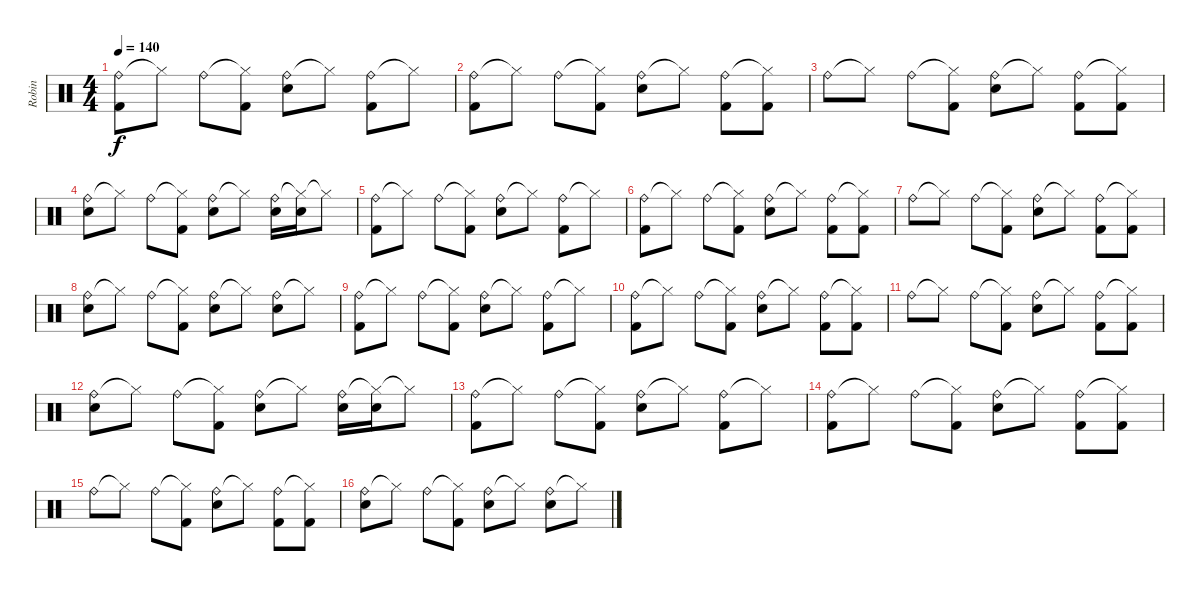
\track ("Robin" "Robin") {instrument percussion}
\staff {score}
\articulation defaults
\ts (4 4)
\tempo 140
\clef neutral
\ks c
("Ride (bell)" "Kick (hit) 2").8{dy f} "Hi-Hat (closed)"{t}.8 "Ride (bell)".8 ("Hi-Hat (closed)"{t} "Kick (hit) 2").8 ("Ride (bell)" "Snare (hit) 2").8 "Hi-Hat (closed)"{t}.8 ("Ride (bell)" "Kick (hit) 2").8 "Hi-Hat (closed)"{t}.8 |
("Ride (bell)" "Kick (hit) 2").8 "Hi-Hat (closed)"{t}.8 "Ride (bell)".8 ("Hi-Hat (closed)"{t} "Kick (hit) 2").8 ("Ride (bell)" "Snare (hit) 2").8 "Hi-Hat (closed)"{t}.8 ("Ride (bell)" "Kick (hit) 2").8 ("Hi-Hat (closed)"{t} "Kick (hit) 2").8 |
"Ride (bell)".8 "Hi-Hat (closed)"{t}.8 "Ride (bell)".8 ("Hi-Hat (closed)"{t} "Kick (hit) 2").8 ("Ride (bell)" "Snare (hit) 2").8 "Hi-Hat (closed)"{t}.8 ("Ride (bell)" "Kick (hit) 2").8 ("Hi-Hat (closed)"{t} "Kick (hit) 2").8 |
("Ride (bell)" "Snare (hit) 2").8 "Hi-Hat (closed)"{t}.8 "Ride (bell)".8 ("Hi-Hat (closed)"{t} "Kick (hit) 2").8 ("Ride (bell)" "Snare (hit) 2").8 "Hi-Hat (closed)"{t}.8 ("Ride (bell)" "Snare (hit) 2").16 ("Hi-Hat (closed)"{t} "Snare (hit) 2").16 "Hi-Hat (closed)"{t}.8 |
("Ride (bell)" "Kick (hit) 2").8 "Hi-Hat (closed)"{t}.8 "Ride (bell)".8 ("Hi-Hat (closed)"{t} "Kick (hit) 2").8 ("Ride (bell)" "Snare (hit) 2").8 "Hi-Hat (closed)"{t}.8 ("Ride (bell)" "Kick (hit) 2").8 "Hi-Hat (closed)"{t}.8 |
("Ride (bell)" "Kick (hit) 2").8 "Hi-Hat (closed)"{t}.8 "Ride (bell)".8 ("Hi-Hat (closed)"{t} "Kick (hit) 2").8 ("Ride (bell)" "Snare (hit) 2").8 "Hi-Hat (closed)"{t}.8 ("Ride (bell)" "Kick (hit) 2").8 ("Hi-Hat (closed)"{t} "Kick (hit) 2").8 |
"Ride (bell)".8 "Hi-Hat (closed)"{t}.8 "Ride (bell)".8 ("Hi-Hat (closed)"{t} "Kick (hit) 2").8 ("Ride (bell)" "Snare (hit) 2").8 "Hi-Hat (closed)"{t}.8 ("Ride (bell)" "Kick (hit) 2").8 ("Hi-Hat (closed)"{t} "Kick (hit) 2").8 |
("Ride (bell)" "Snare (hit) 2").8 "Hi-Hat (closed)"{t}.8 "Ride (bell)".8 ("Hi-Hat (closed)"{t} "Kick (hit) 2").8 ("Ride (bell)" "Snare (hit) 2").8 "Hi-Hat (closed)"{t}.8 ("Ride (bell)" "Snare (hit) 2").8 "Hi-Hat (closed)"{t}.8 |
("Ride (bell)" "Kick (hit) 2").8 "Hi-Hat (closed)"{t}.8 "Ride (bell)".8 ("Hi-Hat (closed)"{t} "Kick (hit) 2").8 ("Ride (bell)" "Snare (hit) 2").8 "Hi-Hat (closed)"{t}.8 ("Ride (bell)" "Kick (hit) 2").8 "Hi-Hat (closed)"{t}.8 |
("Ride (bell)" "Kick (hit) 2").8 "Hi-Hat (closed)"{t}.8 "Ride (bell)".8 ("Hi-Hat (closed)"{t} "Kick (hit) 2").8 ("Ride (bell)" "Snare (hit) 2").8 "Hi-Hat (closed)"{t}.8 ("Ride (bell)" "Kick (hit) 2").8 ("Hi-Hat (closed)"{t} "Kick (hit) 2").8 |
"Ride (bell)".8 "Hi-Hat (closed)"{t}.8 "Ride (bell)".8 ("Hi-Hat (closed)"{t} "Kick (hit) 2").8 ("Ride (bell)" "Snare (hit) 2").8 "Hi-Hat (closed)"{t}.8 ("Ride (bell)" "Kick (hit) 2").8 ("Hi-Hat (closed)"{t} "Kick (hit) 2").8 |
("Ride (bell)" "Snare (hit) 2").8 "Hi-Hat (closed)"{t}.8 "Ride (bell)".8 ("Hi-Hat (closed)"{t} "Kick (hit) 2").8 ("Ride (bell)" "Snare (hit) 2").8 "Hi-Hat (closed)"{t}.8 ("Ride (bell)" "Snare (hit) 2").16 ("Hi-Hat (closed)"{t} "Snare (hit) 2").16 "Hi-Hat (closed)"{t}.8 |
("Ride (bell)" "Kick (hit) 2").8 "Hi-Hat (closed)"{t}.8 "Ride (bell)".8 ("Hi-Hat (closed)"{t} "Kick (hit) 2").8 ("Ride (bell)" "Snare (hit) 2").8 "Hi-Hat (closed)"{t}.8 ("Ride (bell)" "Kick (hit) 2").8 "Hi-Hat (closed)"{t}.8 |
("Ride (bell)" "Kick (hit) 2").8 "Hi-Hat (closed)"{t}.8 "Ride (bell)".8 ("Hi-Hat (closed)"{t} "Kick (hit) 2").8 ("Ride (bell)" "Snare (hit) 2").8 "Hi-Hat (closed)"{t}.8 ("Ride (bell)" "Kick (hit) 2").8 ("Hi-Hat (closed)"{t} "Kick (hit) 2").8 |
"Ride (bell)".8 "Hi-Hat (closed)"{t}.8 "Ride (bell)".8 ("Hi-Hat (closed)"{t} "Kick (hit) 2").8 ("Ride (bell)" "Snare (hit) 2").8 "Hi-Hat (closed)"{t}.8 ("Ride (bell)" "Kick (hit) 2").8 ("Hi-Hat (closed)"{t} "Kick (hit) 2").8 |
("Ride (bell)" "Snare (hit) 2").8 "Hi-Hat (closed)"{t}.8 "Ride (bell)".8 ("Hi-Hat (closed)"{t} "Kick (hit) 2").8 ("Ride (bell)" "Snare (hit) 2").8 "Hi-Hat (closed)"{t}.8 ("Ride (bell)" "Snare (hit) 2").8 "Hi-Hat (closed)"{t}.8
